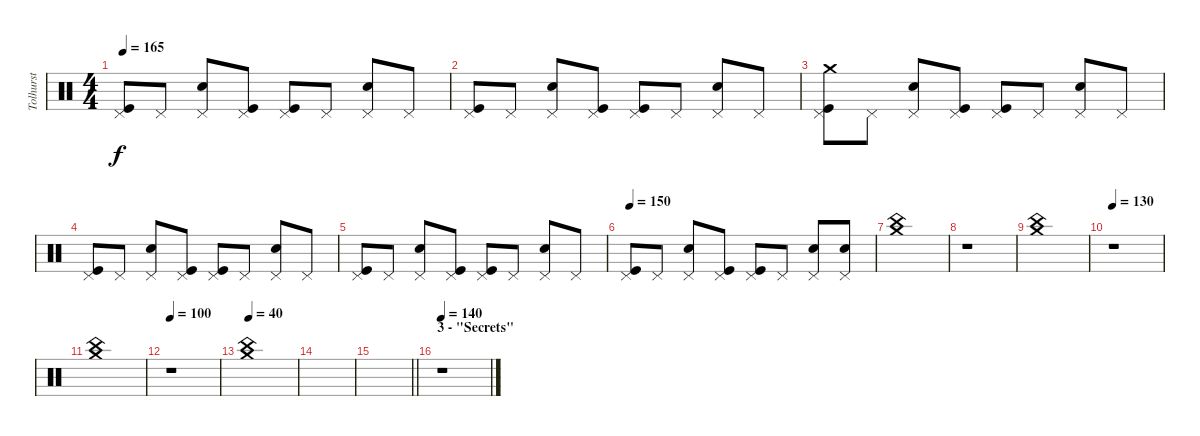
\track ("Tolhurst" "Tolhurst") {instrument percussion}
\staff {score}
\articulation defaults
\ts (4 4)
\tempo 165
\clef neutral
\ks c
("Pedal Hi-Hat (hit)" "Kick (hit)").8{dy f} "Pedal Hi-Hat (hit)".8 ("Pedal Hi-Hat (hit)" "Snare (hit) 2").8 ("Pedal Hi-Hat (hit)" "Kick (hit)").8 ("Pedal Hi-Hat (hit)" "Kick (hit)").8 "Pedal Hi-Hat (hit)".8 ("Pedal Hi-Hat (hit)" "Snare (hit) 2").8 "Pedal Hi-Hat (hit)".8 |
("Pedal Hi-Hat (hit)" "Kick (hit)").8 "Pedal Hi-Hat (hit)".8 ("Pedal Hi-Hat (hit)" "Snare (hit) 2").8 ("Pedal Hi-Hat (hit)" "Kick (hit)").8 ("Pedal Hi-Hat (hit)" "Kick (hit)").8 "Pedal Hi-Hat (hit)".8 ("Pedal Hi-Hat (hit)" "Snare (hit) 2").8 "Pedal Hi-Hat (hit)".8 |
("Crash medium (hit)" "Pedal Hi-Hat (hit)" "Kick (hit)").8 "Pedal Hi-Hat (hit)".8 ("Pedal Hi-Hat (hit)" "Snare (hit) 2").8 ("Pedal Hi-Hat (hit)" "Kick (hit)").8 ("Pedal Hi-Hat (hit)" "Kick (hit)").8 "Pedal Hi-Hat (hit)".8 ("Pedal Hi-Hat (hit)" "Snare (hit) 2").8 "Pedal Hi-Hat (hit)".8 |
("Pedal Hi-Hat (hit)" "Kick (hit)").8 "Pedal Hi-Hat (hit)".8 ("Pedal Hi-Hat (hit)" "Snare (hit) 2").8 ("Pedal Hi-Hat (hit)" "Kick (hit)").8 ("Pedal Hi-Hat (hit)" "Kick (hit)").8 "Pedal Hi-Hat (hit)".8 ("Pedal Hi-Hat (hit)" "Snare (hit) 2").8 "Pedal Hi-Hat (hit)".8 |
("Pedal Hi-Hat (hit)" "Kick (hit)").8 "Pedal Hi-Hat (hit)".8 ("Pedal Hi-Hat (hit)" "Snare (hit) 2").8 ("Pedal Hi-Hat (hit)" "Kick (hit)").8 ("Pedal Hi-Hat (hit)" "Kick (hit)").8 "Pedal Hi-Hat (hit)".8 ("Pedal Hi-Hat (hit)" "Snare (hit) 2").8 "Pedal Hi-Hat (hit)".8 |
\tempo 150
("Pedal Hi-Hat (hit)" "Kick (hit)").8 "Pedal Hi-Hat (hit)".8 ("Pedal Hi-Hat (hit)" "Snare (hit) 2").8 ("Pedal Hi-Hat (hit)" "Kick (hit)").8 ("Pedal Hi-Hat (hit)" "Kick (hit)").8 "Pedal Hi-Hat (hit)".8 ("Pedal Hi-Hat (hit)" "Snare (hit) 2").8 ("Pedal Hi-Hat (hit)" "Snare (hit) 2").8 |
("China (hit)" "Crash medium (hit)").1 |
r.1 |
("China (hit)" "Crash medium (hit)").1 |
\tempo 130
r.1 |
("China (hit)" "Crash medium (hit)").1 |
\tempo 100
r.1 |
\tempo 40
("China (hit)" "Crash medium (hit)").1 |
|
\barLineRight lightlight
|
\section ("" "3 - \"Secrets\"")
\tempo 140
r.1
